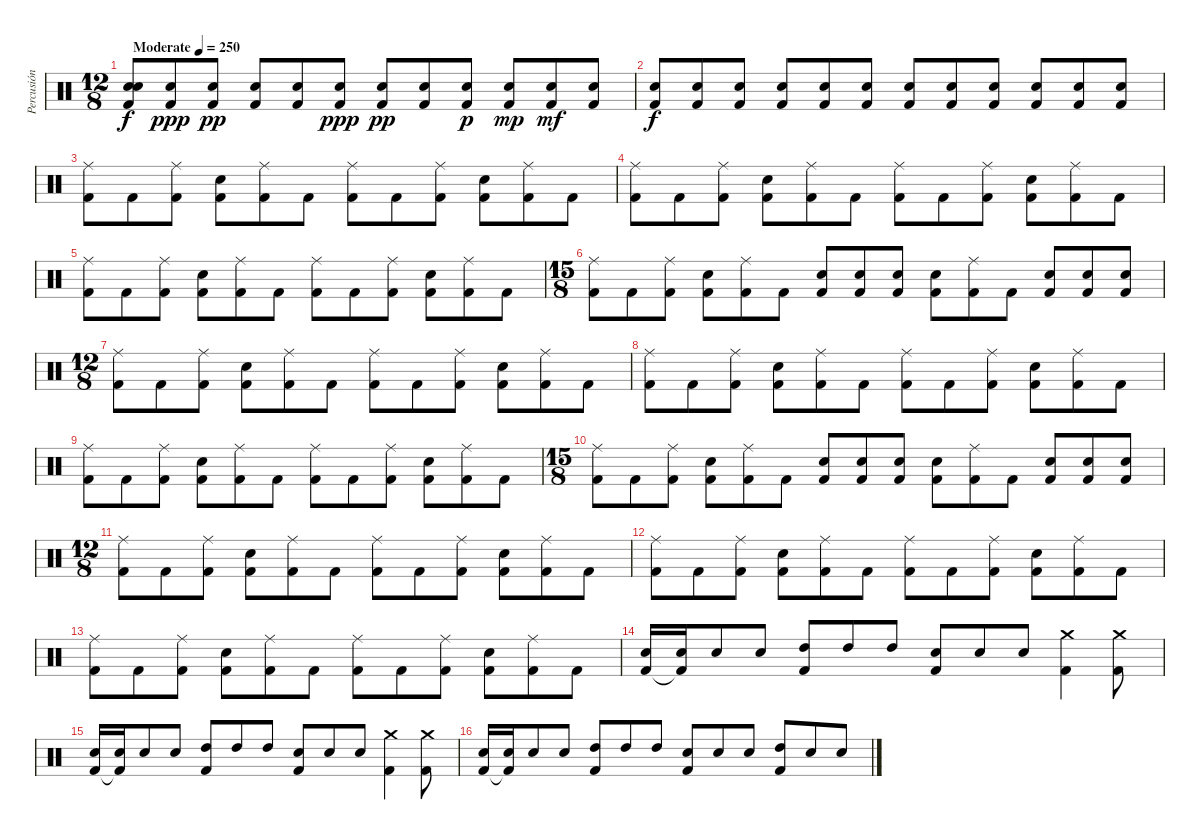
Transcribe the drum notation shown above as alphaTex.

\track ("Percusión" "Percusión") {instrument percussion}
\staff {score}
\articulation defaults
\ts (12 8)
\tempo (250 "Moderate")
\clef neutral
\ks c
("Kick (hit) 2" "Snare (hit) 2" "Snare (hit) 2").8{dy f} ("Kick (hit) 2" "Snare (hit) 2").8{dy ppp} ("Kick (hit) 2" "Snare (hit) 2").8{dy pp} ("Kick (hit) 2" "Snare (hit) 2").8 ("Kick (hit) 2" "Snare (hit) 2").8 ("Kick (hit) 2" "Snare (hit) 2").8{dy ppp} ("Kick (hit) 2" "Snare (hit) 2").8{dy pp} ("Kick (hit) 2" "Snare (hit) 2").8 ("Kick (hit) 2" "Snare (hit) 2").8{dy p} ("Kick (hit) 2" "Snare (hit) 2").8{dy mp} ("Kick (hit) 2" "Snare (hit) 2").8{dy mf} ("Kick (hit) 2" "Snare (hit) 2").8 |
("Kick (hit) 2" "Snare (hit) 2").8{dy f} ("Kick (hit) 2" "Snare (hit) 2").8 ("Kick (hit) 2" "Snare (hit) 2").8 ("Kick (hit) 2" "Snare (hit) 2").8 ("Kick (hit) 2" "Snare (hit) 2").8 ("Kick (hit) 2" "Snare (hit) 2").8 ("Kick (hit) 2" "Snare (hit) 2").8 ("Kick (hit) 2" "Snare (hit) 2").8 ("Kick (hit) 2" "Snare (hit) 2").8 ("Kick (hit) 2" "Snare (hit) 2").8 ("Kick (hit) 2" "Snare (hit) 2").8 ("Kick (hit) 2" "Snare (hit) 2").8 |
("Kick (hit) 2" "Ride (middle)").8 "Kick (hit) 2".8 ("Kick (hit) 2" "Ride (middle)").8 ("Kick (hit) 2" "Snare (hit) 2").8 ("Kick (hit) 2" "Ride (middle)").8 "Kick (hit) 2".8 ("Kick (hit) 2" "Ride (middle)").8 "Kick (hit) 2".8 ("Kick (hit) 2" "Ride (middle)").8 ("Kick (hit) 2" "Snare (hit) 2").8 ("Kick (hit) 2" "Ride (middle)").8 "Kick (hit) 2".8 |
("Kick (hit) 2" "Ride (middle)").8 "Kick (hit) 2".8 ("Kick (hit) 2" "Ride (middle)").8 ("Kick (hit) 2" "Snare (hit) 2").8 ("Kick (hit) 2" "Ride (middle)").8 "Kick (hit) 2".8 ("Kick (hit) 2" "Ride (middle)").8 "Kick (hit) 2".8 ("Kick (hit) 2" "Ride (middle)").8 ("Kick (hit) 2" "Snare (hit) 2").8 ("Kick (hit) 2" "Ride (middle)").8 "Kick (hit) 2".8 |
("Kick (hit) 2" "Ride (middle)").8 "Kick (hit) 2".8 ("Kick (hit) 2" "Ride (middle)").8 ("Kick (hit) 2" "Snare (hit) 2").8 ("Kick (hit) 2" "Ride (middle)").8 "Kick (hit) 2".8 ("Kick (hit) 2" "Ride (middle)").8 "Kick (hit) 2".8 ("Kick (hit) 2" "Ride (middle)").8 ("Kick (hit) 2" "Snare (hit) 2").8 ("Kick (hit) 2" "Ride (middle)").8 "Kick (hit) 2".8 |
\ts (15 8)
("Kick (hit) 2" "Ride (middle)").8 "Kick (hit) 2".8 ("Kick (hit) 2" "Ride (middle)").8 ("Kick (hit) 2" "Snare (hit) 2").8 ("Kick (hit) 2" "Ride (middle)").8 "Kick (hit) 2".8 ("Kick (hit) 2" "Snare (hit) 2").8 ("Kick (hit) 2" "Snare (hit) 2").8 ("Kick (hit) 2" "Snare (hit) 2").8 ("Kick (hit) 2" "Snare (hit) 2").8 ("Kick (hit) 2" "Ride (middle)").8 "Kick (hit) 2".8 ("Kick (hit) 2" "Snare (hit) 2").8 ("Kick (hit) 2" "Snare (hit) 2").8 ("Kick (hit) 2" "Snare (hit) 2").8 |
\ts (12 8)
("Kick (hit) 2" "Ride (middle)").8 "Kick (hit) 2".8 ("Kick (hit) 2" "Ride (middle)").8 ("Kick (hit) 2" "Snare (hit) 2").8 ("Kick (hit) 2" "Ride (middle)").8 "Kick (hit) 2".8 ("Kick (hit) 2" "Ride (middle)").8 "Kick (hit) 2".8 ("Kick (hit) 2" "Ride (middle)").8 ("Kick (hit) 2" "Snare (hit) 2").8 ("Kick (hit) 2" "Ride (middle)").8 "Kick (hit) 2".8 |
("Kick (hit) 2" "Ride (middle)").8 "Kick (hit) 2".8 ("Kick (hit) 2" "Ride (middle)").8 ("Kick (hit) 2" "Snare (hit) 2").8 ("Kick (hit) 2" "Ride (middle)").8 "Kick (hit) 2".8 ("Kick (hit) 2" "Ride (middle)").8 "Kick (hit) 2".8 ("Kick (hit) 2" "Ride (middle)").8 ("Kick (hit) 2" "Snare (hit) 2").8 ("Kick (hit) 2" "Ride (middle)").8 "Kick (hit) 2".8 |
("Kick (hit) 2" "Ride (middle)").8 "Kick (hit) 2".8 ("Kick (hit) 2" "Ride (middle)").8 ("Kick (hit) 2" "Snare (hit) 2").8 ("Kick (hit) 2" "Ride (middle)").8 "Kick (hit) 2".8 ("Kick (hit) 2" "Ride (middle)").8 "Kick (hit) 2".8 ("Kick (hit) 2" "Ride (middle)").8 ("Kick (hit) 2" "Snare (hit) 2").8 ("Kick (hit) 2" "Ride (middle)").8 "Kick (hit) 2".8 |
\ts (15 8)
("Kick (hit) 2" "Ride (middle)").8 "Kick (hit) 2".8 ("Kick (hit) 2" "Ride (middle)").8 ("Kick (hit) 2" "Snare (hit) 2").8 ("Kick (hit) 2" "Ride (middle)").8 "Kick (hit) 2".8 ("Kick (hit) 2" "Snare (hit) 2").8 ("Kick (hit) 2" "Snare (hit) 2").8 ("Kick (hit) 2" "Snare (hit) 2").8 ("Kick (hit) 2" "Snare (hit) 2").8 ("Kick (hit) 2" "Ride (middle)").8 "Kick (hit) 2".8 ("Kick (hit) 2" "Snare (hit) 2").8 ("Kick (hit) 2" "Snare (hit) 2").8 ("Kick (hit) 2" "Snare (hit) 2").8 |
\ts (12 8)
("Kick (hit) 2" "Ride (middle)").8 "Kick (hit) 2".8 ("Kick (hit) 2" "Ride (middle)").8 ("Kick (hit) 2" "Snare (hit) 2").8 ("Kick (hit) 2" "Ride (middle)").8 "Kick (hit) 2".8 ("Kick (hit) 2" "Ride (middle)").8 "Kick (hit) 2".8 ("Kick (hit) 2" "Ride (middle)").8 ("Kick (hit) 2" "Snare (hit) 2").8 ("Kick (hit) 2" "Ride (middle)").8 "Kick (hit) 2".8 |
("Kick (hit) 2" "Ride (middle)").8 "Kick (hit) 2".8 ("Kick (hit) 2" "Ride (middle)").8 ("Kick (hit) 2" "Snare (hit) 2").8 ("Kick (hit) 2" "Ride (middle)").8 "Kick (hit) 2".8 ("Kick (hit) 2" "Ride (middle)").8 "Kick (hit) 2".8 ("Kick (hit) 2" "Ride (middle)").8 ("Kick (hit) 2" "Snare (hit) 2").8 ("Kick (hit) 2" "Ride (middle)").8 "Kick (hit) 2".8 |
("Kick (hit) 2" "Ride (middle)").8 "Kick (hit) 2".8 ("Kick (hit) 2" "Ride (middle)").8 ("Kick (hit) 2" "Snare (hit) 2").8 ("Kick (hit) 2" "Ride (middle)").8 "Kick (hit) 2".8 ("Kick (hit) 2" "Ride (middle)").8 "Kick (hit) 2".8 ("Kick (hit) 2" "Ride (middle)").8 ("Kick (hit) 2" "Snare (hit) 2").8 ("Kick (hit) 2" "Ride (middle)").8 "Kick (hit) 2".8 |
("Kick (hit) 2" "Snare (hit) 2").16 ("Kick (hit) 2"{t} "Snare (hit) 2").16 "Snare (hit) 2".8 "Snare (hit) 2".8 ("Kick (hit) 2" "High Tom (hit)").8 "High Tom (hit)".8 "High Tom (hit)".8 ("Kick (hit) 2" "Snare (hit) 2").8 "Snare (hit) 2".8 "Snare (hit) 2".8 ("Kick (hit) 2" "Crash medium (hit)").4 ("Kick (hit) 2" "Crash medium (hit)").8 |
("Kick (hit) 2" "Snare (hit) 2").16 ("Kick (hit) 2"{t} "Snare (hit) 2").16 "Snare (hit) 2".8 "Snare (hit) 2".8 ("Kick (hit) 2" "High Tom (hit)").8 "High Tom (hit)".8 "High Tom (hit)".8 ("Kick (hit) 2" "Snare (hit) 2").8 "Snare (hit) 2".8 "Snare (hit) 2".8 ("Kick (hit) 2" "Crash medium (hit)").4 ("Kick (hit) 2" "Crash medium (hit)").8 |
("Kick (hit) 2" "Snare (hit) 2").16 ("Kick (hit) 2"{t} "Snare (hit) 2").16 "Snare (hit) 2".8 "Snare (hit) 2".8 ("Kick (hit) 2" "High Tom (hit)").8 "High Tom (hit)".8 "High Tom (hit)".8 ("Kick (hit) 2" "Snare (hit) 2").8 "Snare (hit) 2".8 "Snare (hit) 2".8 ("Kick (hit) 2" "High Tom (hit)").8 "Snare (hit) 2".8 "Snare (hit) 2".8
